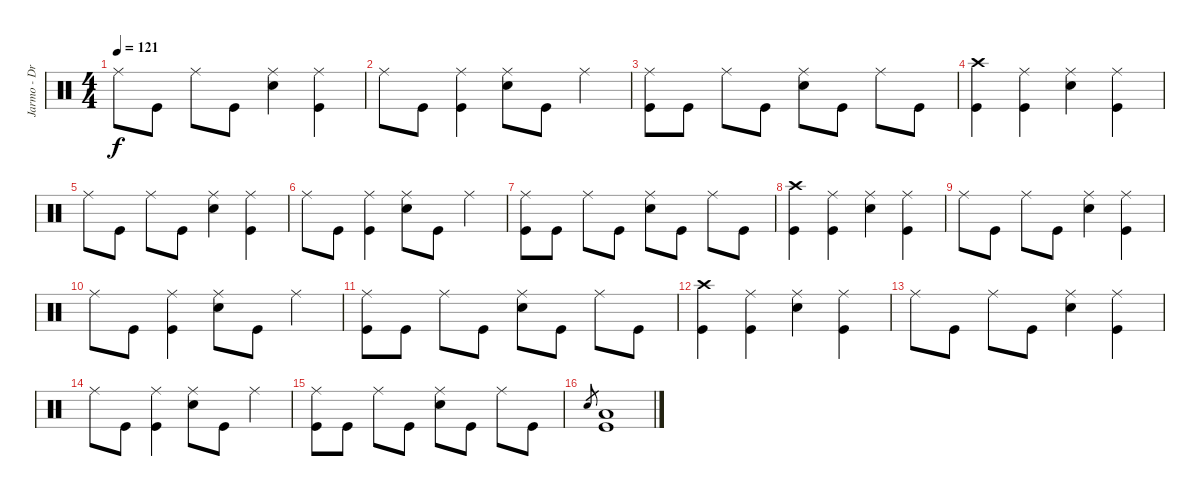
\track ("Jarmo - Drums" "Jarmo - Dr") {instrument percussion}
\staff {score}
\articulation defaults
\ts (4 4)
\tempo 121
\clef neutral
\ks c "Ride (middle)".8{dy f} "Kick (hit)".8 "Ride (middle)".8 "Kick (hit)".8
("Electric Snare (hit)" "Ride (middle)").4 ("Kick (hit)" "Ride (middle)").4 |
"Ride (middle)".8 "Kick (hit)".8 ("Kick (hit)" "Ride (middle)").4 ("Electric Snare (hit)" "Ride (middle)").8 "Kick (hit)".8 "Ride (middle)".4 |
("Kick (hit)" "Ride (middle)").8 "Kick (hit)".8 "Ride (middle)".8 "Kick (hit)".8 ("Electric Snare (hit)" "Ride (middle)").8 "Kick (hit)".8 "Ride (middle)".8 "Kick (hit)".8 |
("Kick (hit)" "Crash high (hit)").4 ("Kick (hit)" "Ride (middle)").4 ("Electric Snare (hit)" "Ride (middle)").4 ("Kick (hit)" "Ride (middle)").4 |
"Ride (middle)".8 "Kick (hit)".8 "Ride (middle)".8 "Kick (hit)".8 ("Electric Snare (hit)" "Ride (middle)").4 ("Kick (hit)" "Ride (middle)").4 |
"Ride (middle)".8 "Kick (hit)".8 ("Kick (hit)" "Ride (middle)").4 ("Electric Snare (hit)" "Ride (middle)").8 "Kick (hit)".8 "Ride (middle)".4 |
("Kick (hit)" "Ride (middle)").8 "Kick (hit)".8 "Ride (middle)".8 "Kick (hit)".8 ("Electric Snare (hit)" "Ride (middle)").8 "Kick (hit)".8 "Ride (middle)".8 "Kick (hit)".8 |
("Kick (hit)" "Crash high (hit)").4 ("Kick (hit)" "Ride (middle)").4 ("Electric Snare (hit)" "Ride (middle)").4 ("Kick (hit)" "Ride (middle)").4 |
"Ride (middle)".8 "Kick (hit)".8 "Ride (middle)".8 "Kick (hit)".8 ("Electric Snare (hit)" "Ride (middle)").4 ("Kick (hit)" "Ride (middle)").4 |
"Ride (middle)".8 "Kick (hit)".8 ("Kick (hit)" "Ride (middle)").4 ("Electric Snare (hit)" "Ride (middle)").8 "Kick (hit)".8 "Ride (middle)".4 |
("Kick (hit)" "Ride (middle)").8 "Kick (hit)".8 "Ride (middle)".8 "Kick (hit)".8 ("Electric Snare (hit)" "Ride (middle)").8 "Kick (hit)".8 "Ride (middle)".8 "Kick (hit)".8 |
("Kick (hit)" "Crash high (hit)").4 ("Kick (hit)" "Ride (middle)").4 ("Electric Snare (hit)" "Ride (middle)").4 ("Kick (hit)" "Ride (middle)").4 |
"Ride (middle)".8 "Kick (hit)".8 "Ride (middle)".8 "Kick (hit)".8 ("Electric Snare (hit)" "Ride (middle)").4 ("Kick (hit)" "Ride (middle)").4 |
"Ride (middle)".8 "Kick (hit)".8 ("Kick (hit)" "Ride (middle)").4 ("Electric Snare (hit)" "Ride (middle)").8 "Kick (hit)".8 "Ride (middle)".4 |
("Kick (hit)" "Ride (middle)").8 "Kick (hit)".8 "Ride (middle)".8 "Kick (hit)".8 ("Electric Snare (hit)" "Ride (middle)").8 "Kick (hit)".8 "Ride (middle)".8 "Kick (hit)".8 |
"Electric Snare (hit)".8{gr} ("Kick (hit)" "Low Tom (hit)").1
